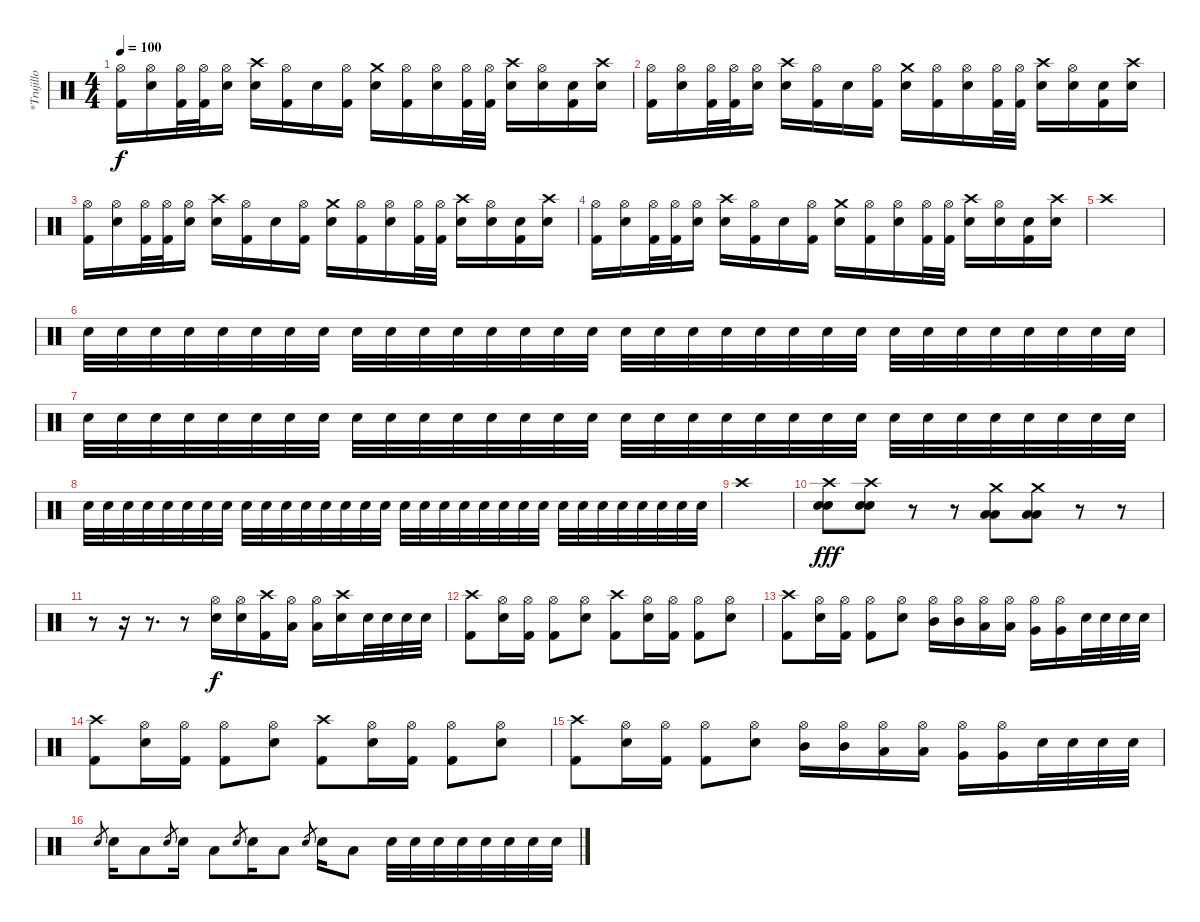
\track ("*Trujillo" "*Trujillo") {instrument percussion}
\staff {score}
\articulation defaults
\ts (4 4)
\tempo 100
\clef neutral
\ks c
("Hi-Hat (open)" "Kick (hit) 2").16{dy f} ("Hi-Hat (open)" "Electric Snare (hit)").16 ("Hi-Hat (open)" "Kick (hit) 2").32 ("Hi-Hat (open)" "Kick (hit) 2").32 ("Hi-Hat (open)" "Electric Snare (hit)").16 ("Crash high (hit)" "Electric Snare (hit)").16 ("Hi-Hat (open)" "Kick (hit) 2").16 "Electric Snare (hit)".16 ("Hi-Hat (open)" "Kick (hit) 2").16 ("Crash medium (hit)" "Electric Snare (hit)").16 ("Hi-Hat (open)" "Kick (hit) 2").16 ("Hi-Hat (open)" "Electric Snare (hit)").16 ("Hi-Hat (open)" "Kick (hit) 2").32 ("Hi-Hat (open)" "Kick (hit) 2").32 ("Crash high (hit)" "Electric Snare (hit)").16 ("Hi-Hat (open)" "Electric Snare (hit)").16 ("Snare (hit)" "Kick (hit) 2").16 ("Crash high (hit)" "Electric Snare (hit)").16 |
("Hi-Hat (open)" "Kick (hit) 2").16 ("Hi-Hat (open)" "Electric Snare (hit)").16 ("Hi-Hat (open)" "Kick (hit) 2").32 ("Hi-Hat (open)" "Kick (hit) 2").32 ("Hi-Hat (open)" "Electric Snare (hit)").16 ("Crash high (hit)" "Electric Snare (hit)").16 ("Hi-Hat (open)" "Kick (hit) 2").16 "Electric Snare (hit)".16 ("Hi-Hat (open)" "Kick (hit) 2").16 ("Crash medium (hit)" "Electric Snare (hit)").16 ("Hi-Hat (open)" "Kick (hit) 2").16 ("Hi-Hat (open)" "Electric Snare (hit)").16 ("Hi-Hat (open)" "Kick (hit) 2").32 ("Hi-Hat (open)" "Kick (hit) 2").32 ("Crash high (hit)" "Electric Snare (hit)").16 ("Hi-Hat (open)" "Electric Snare (hit)").16 ("Snare (hit)" "Kick (hit) 2").16 ("Crash high (hit)" "Electric Snare (hit)").16 |
("Hi-Hat (open)" "Kick (hit) 2").16 ("Hi-Hat (open)" "Electric Snare (hit)").16 ("Hi-Hat (open)" "Kick (hit) 2").32 ("Hi-Hat (open)" "Kick (hit) 2").32 ("Hi-Hat (open)" "Electric Snare (hit)").16 ("Crash high (hit)" "Electric Snare (hit)").16 ("Hi-Hat (open)" "Kick (hit) 2").16 "Electric Snare (hit)".16 ("Hi-Hat (open)" "Kick (hit) 2").16 ("Crash medium (hit)" "Electric Snare (hit)").16 ("Hi-Hat (open)" "Kick (hit) 2").16 ("Hi-Hat (open)" "Electric Snare (hit)").16 ("Hi-Hat (open)" "Kick (hit) 2").32 ("Hi-Hat (open)" "Kick (hit) 2").32 ("Crash high (hit)" "Electric Snare (hit)").16 ("Hi-Hat (open)" "Electric Snare (hit)").16 ("Snare (hit)" "Kick (hit) 2").16 ("Crash high (hit)" "Electric Snare (hit)").16 |
("Hi-Hat (open)" "Kick (hit) 2").16 ("Hi-Hat (open)" "Electric Snare (hit)").16 ("Hi-Hat (open)" "Kick (hit) 2").32 ("Hi-Hat (open)" "Kick (hit) 2").32 ("Hi-Hat (open)" "Electric Snare (hit)").16 ("Crash high (hit)" "Electric Snare (hit)").16 ("Hi-Hat (open)" "Kick (hit) 2").16 "Electric Snare (hit)".16 ("Hi-Hat (open)" "Kick (hit) 2").16 ("Crash medium (hit)" "Electric Snare (hit)").16 ("Hi-Hat (open)" "Kick (hit) 2").16 ("Hi-Hat (open)" "Electric Snare (hit)").16 ("Hi-Hat (open)" "Kick (hit) 2").32 ("Hi-Hat (open)" "Kick (hit) 2").32 ("Crash high (hit)" "Electric Snare (hit)").16 ("Hi-Hat (open)" "Electric Snare (hit)").16 ("Snare (hit)" "Kick (hit) 2").16 ("Crash high (hit)" "Electric Snare (hit)").16 |
"Crash high (hit)".1 |
"Electric Snare (hit)".32{volume 7} "Electric Snare (hit)".32 "Electric Snare (hit)".32 "Electric Snare (hit)".32 "Electric Snare (hit)".32 "Electric Snare (hit)".32 "Electric Snare (hit)".32 "Electric Snare (hit)".32 "Electric Snare (hit)".32 "Electric Snare (hit)".32 "Electric Snare (hit)".32 "Electric Snare (hit)".32 "Electric Snare (hit)".32 "Electric Snare (hit)".32 "Electric Snare (hit)".32 "Electric Snare (hit)".32 "Electric Snare (hit)".32 "Electric Snare (hit)".32 "Electric Snare (hit)".32 "Electric Snare (hit)".32 "Electric Snare (hit)".32 "Electric Snare (hit)".32 "Electric Snare (hit)".32 "Electric Snare (hit)".32 "Electric Snare (hit)".32 "Electric Snare (hit)".32 "Electric Snare (hit)".32 "Electric Snare (hit)".32 "Electric Snare (hit)".32 "Electric Snare (hit)".32 "Electric Snare (hit)".32 "Electric Snare (hit)".32 |
"Electric Snare (hit)".32{volume 16} "Electric Snare (hit)".32 "Electric Snare (hit)".32 "Electric Snare (hit)".32 "Electric Snare (hit)".32 "Electric Snare (hit)".32 "Electric Snare (hit)".32 "Electric Snare (hit)".32 "Electric Snare (hit)".32 "Electric Snare (hit)".32 "Electric Snare (hit)".32 "Electric Snare (hit)".32 "Electric Snare (hit)".32 "Electric Snare (hit)".32 "Electric Snare (hit)".32 "Electric Snare (hit)".32 "Electric Snare (hit)".32 "Electric Snare (hit)".32 "Electric Snare (hit)".32 "Electric Snare (hit)".32 "Electric Snare (hit)".32 "Electric Snare (hit)".32 "Electric Snare (hit)".32 "Electric Snare (hit)".32 "Electric Snare (hit)".32 "Electric Snare (hit)".32 "Electric Snare (hit)".32 "Electric Snare (hit)".32 "Electric Snare (hit)".32 "Electric Snare (hit)".32 "Electric Snare (hit)".32 "Electric Snare (hit)".32 |
"Electric Snare (hit)".32 "Electric Snare (hit)".32 "Electric Snare (hit)".32 "Electric Snare (hit)".32 "Electric Snare (hit)".32 "Electric Snare (hit)".32 "Electric Snare (hit)".32 "Electric Snare (hit)".32 "Electric Snare (hit)".32 "Electric Snare (hit)".32 "Electric Snare (hit)".32 "Electric Snare (hit)".32 "Electric Snare (hit)".32 "Electric Snare (hit)".32 "Electric Snare (hit)".32 "Electric Snare (hit)".32 "Electric Snare (hit)".32 "Electric Snare (hit)".32 "Electric Snare (hit)".32 "Electric Snare (hit)".32 "Electric Snare (hit)".32 "Electric Snare (hit)".32 "Electric Snare (hit)".32 "Electric Snare (hit)".32 "Electric Snare (hit)".32 "Electric Snare (hit)".32 "Electric Snare (hit)".32 "Electric Snare (hit)".32 "Electric Snare (hit)".32 "Electric Snare (hit)".32 "Electric Snare (hit)".32 "Electric Snare (hit)".32 |
"Crash high (hit)".1 |
("Crash high (hit)" "Electric Snare (hit)" "Electric Snare (hit)").8{dy fff} ("Crash high (hit)" "Electric Snare (hit)" "Electric Snare (hit)").8 r.8 r.8 ("Crash medium (hit)" "Low Tom (hit)" "Low Tom (hit)").8 ("Crash medium (hit)" "Low Tom (hit)" "Low Tom (hit)").8 r.8 r.8 |
r.8 r.16 r.8{d} r.8 ("Hi-Hat (open)" "Snare (hit) 2").16{dy f} ("Hi-Hat (open)" "Snare (hit) 2").16 ("Crash high (hit)" "Kick (hit) 2").16 ("Hi-Hat (open)" "Low Tom (hit)").16 ("Hi-Hat (open)" "Low Tom (hit)").16 ("Crash high (hit)" "Electric Snare (hit)").16 "Electric Snare (hit)".32 "Electric Snare (hit)".32 "Electric Snare (hit)".32 "Electric Snare (hit)".32 |
("Crash high (hit)" "Kick (hit) 2").8 ("Hi-Hat (open)" "Electric Snare (hit)").16 ("Hi-Hat (open)" "Kick (hit) 2").16 ("Hi-Hat (open)" "Kick (hit) 2").8 ("Hi-Hat (open)" "Electric Snare (hit)").8 ("Crash high (hit)" "Kick (hit) 2").8 ("Hi-Hat (open)" "Electric Snare (hit)").16 ("Hi-Hat (open)" "Kick (hit) 2").16 ("Hi-Hat (open)" "Kick (hit) 2").8 ("Hi-Hat (open)" "Electric Snare (hit)").8 |
("Crash high (hit)" "Kick (hit) 2").8 ("Hi-Hat (open)" "Electric Snare (hit)").16 ("Hi-Hat (open)" "Kick (hit) 2").16 ("Hi-Hat (open)" "Kick (hit) 2").8 ("Hi-Hat (open)" "Electric Snare (hit)").8 ("Hi-Hat (open)" "Mid Tom (hit)").16 ("Hi-Hat (open)" "Mid Tom (hit)").16 ("Hi-Hat (open)" "Low Tom (hit)").16 ("Hi-Hat (open)" "Low Tom (hit)").16 ("Hi-Hat (open)" "Very Low Tom (hit)").16 ("Hi-Hat (open)" "Very Low Tom (hit)").16 "Electric Snare (hit)".32 "Electric Snare (hit)".32 "Electric Snare (hit)".32 "Electric Snare (hit)".32 |
("Crash high (hit)" "Kick (hit) 2").8 ("Hi-Hat (open)" "Electric Snare (hit)").16 ("Hi-Hat (open)" "Kick (hit) 2").16 ("Hi-Hat (open)" "Kick (hit) 2").8 ("Hi-Hat (open)" "Electric Snare (hit)").8 ("Crash high (hit)" "Kick (hit) 2").8 ("Hi-Hat (open)" "Electric Snare (hit)").16 ("Hi-Hat (open)" "Kick (hit) 2").16 ("Hi-Hat (open)" "Kick (hit) 2").8 ("Hi-Hat (open)" "Electric Snare (hit)").8 |
("Crash high (hit)" "Kick (hit) 2").8 ("Hi-Hat (open)" "Electric Snare (hit)").16 ("Hi-Hat (open)" "Kick (hit) 2").16 ("Hi-Hat (open)" "Kick (hit) 2").8 ("Hi-Hat (open)" "Electric Snare (hit)").8 ("Hi-Hat (open)" "Mid Tom (hit)").16 ("Hi-Hat (open)" "Mid Tom (hit)").16 ("Hi-Hat (open)" "Low Tom (hit)").16 ("Hi-Hat (open)" "Low Tom (hit)").16 ("Hi-Hat (open)" "Very Low Tom (hit)").16 ("Hi-Hat (open)" "Very Low Tom (hit)").16 "Electric Snare (hit)".32 "Electric Snare (hit)".32 "Electric Snare (hit)".32 "Electric Snare (hit)".32 |
"Electric Snare (hit)".8{gr} "Electric Snare (hit)".16 "Low Tom (hit)".8 "Electric Snare (hit)".8{gr} "Electric Snare (hit)".16 "Low Tom (hit)".8 "Electric Snare (hit)".8{gr} "Electric Snare (hit)".16 "Low Tom (hit)".8 "Electric Snare (hit)".8{gr} "Electric Snare (hit)".16 "Low Tom (hit)".8 "Electric Snare (hit)".32 "Electric Snare (hit)".32 "Electric Snare (hit)".32 "Electric Snare (hit)".32 "Electric Snare (hit)".32 "Electric Snare (hit)".32 "Electric Snare (hit)".32 "Electric Snare (hit)".32
